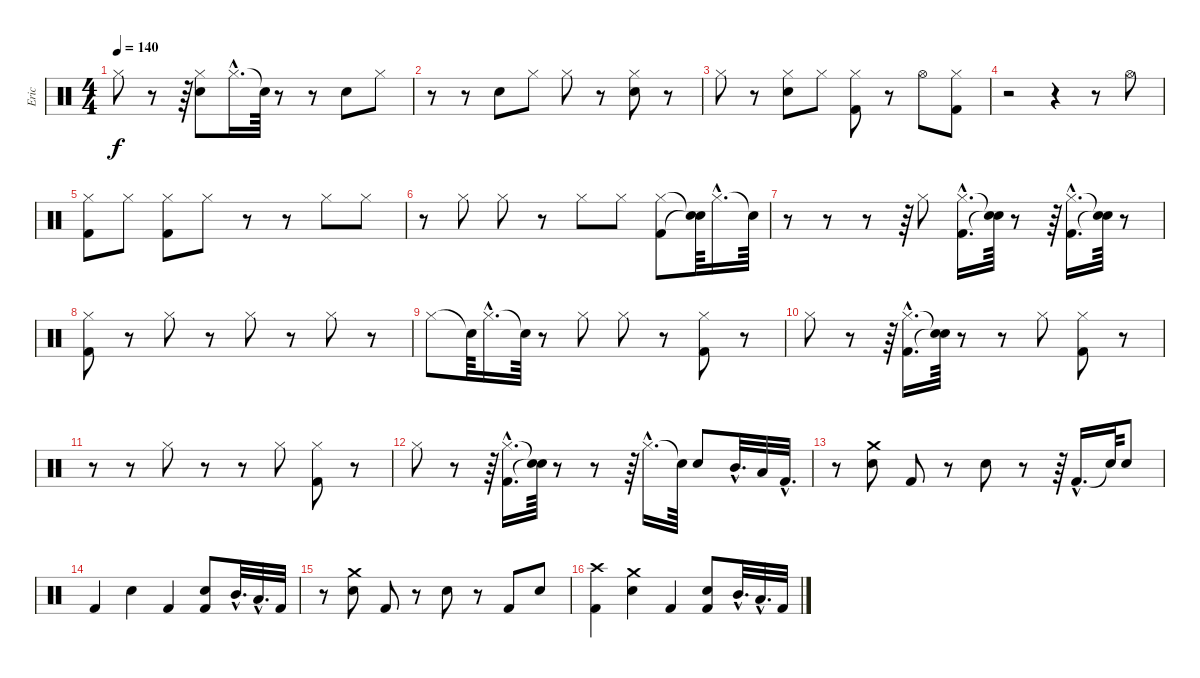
\track ("Eric" "Eric") {instrument percussion}
\staff {score}
\articulation defaults
\ts (4 4)
\tempo 140
\clef neutral
\ks c "Hi-Hat (closed)".8{dy f}
r.8 r.64 ("Hi-Hat (closed)" "Electric Snare (hit)").8 "Hi-Hat (closed)"{hac}.16{d} "Snare (hit)"{t}.64 r.8 r.8 "Electric Snare (hit)".8 "Hi-Hat (closed)".8 |
r.8 r.8 "Electric Snare (hit)".8 "Hi-Hat (closed)".8 "Hi-Hat (closed)".8 r.8 ("Hi-Hat (closed)" "Electric Snare (hit)").8 r.8 |
"Hi-Hat (closed)".8 r.8 ("Hi-Hat (closed)" "Electric Snare (hit)").8 "Hi-Hat (closed)".8 ("Kick (hit) 2" "Hi-Hat (closed)").8 r.8 "Hi-Hat (open)".8 ("Kick (hit) 2" "Hi-Hat (closed)").8 |
r.2 r.4 r.8 "Hi-Hat (open)".8 |
("Kick (hit) 2" "Hi-Hat (closed)").8 "Hi-Hat (closed)".8 ("Kick (hit) 2" "Hi-Hat (closed)").8 "Hi-Hat (closed)".8 r.8 r.8 "Hi-Hat (closed)".8 "Hi-Hat (closed)".8 |
r.8 "Hi-Hat (closed)".8 "Hi-Hat (closed)".8 r.8 "Hi-Hat (closed)".8 "Hi-Hat (closed)".8 ("Kick (hit) 2" "Hi-Hat (closed)").8 ("Snare (hit)"{t} "Snare (hit)"{t}).64 "Hi-Hat (closed)"{hac}.16{d} "Snare (hit)"{t}.64 |
r.8 r.8 r.8 r.64 "Hi-Hat (closed)".8 ("Kick (hit) 2"{hac} "Hi-Hat (closed)"{hac}).16{d} ("Snare (hit)"{t} "Snare (hit)"{t}).64 r.8 r.64 ("Kick (hit) 2"{hac} "Hi-Hat (closed)"{hac}).16{d} ("Snare (hit)"{t} "Snare (hit)"{t}).64 r.8 |
("Kick (hit) 2" "Hi-Hat (closed)").8 r.8 "Hi-Hat (closed)".8 r.8 "Hi-Hat (closed)".8 r.8 "Hi-Hat (closed)".8 r.8 |
"Hi-Hat (closed)".8 "Snare (hit)"{t}.64 "Hi-Hat (closed)"{hac}.16{d} "Snare (hit)"{t}.64 r.8 "Hi-Hat (closed)".8 "Hi-Hat (closed)".8 r.8 ("Kick (hit) 2" "Hi-Hat (closed)").8 r.8 |
"Hi-Hat (closed)".8 r.8 r.64 ("Kick (hit) 2"{hac} "Hi-Hat (closed)"{hac}).16{d} ("Snare (hit)"{t} "Snare (hit)"{t}).64 r.8 r.8 "Hi-Hat (closed)".8 ("Kick (hit) 2" "Hi-Hat (closed)").8 r.8 |
r.8 r.8 "Hi-Hat (closed)".8 r.8 r.8 "Hi-Hat (closed)".8 ("Kick (hit) 2" "Hi-Hat (closed)").8 r.8 |
"Hi-Hat (closed)".8 r.8 r.64 ("Kick (hit) 2"{hac} "Hi-Hat (closed)"{hac}).16{d} ("Snare (hit)"{t} "Snare (hit)"{t}).64 r.8 r.8 r.64 "Hi-Hat (closed)"{hac}.16{d} "Snare (hit)"{t}.64 "Electric Snare (hit)".8 "Mid Tom (hit)"{hac}.32{d} "Low Tom (hit)".32 "Kick (hit) 2"{hac}.32{d} |
r.8 ("Crash medium (hit)" "Electric Snare (hit)").8 "Kick (hit) 2".8 r.8 "Electric Snare (hit)".8 r.8 r.64 "Kick (hit) 2"{hac}.16{d} "Snare (hit)"{t}.64 "Electric Snare (hit)".8 |
"Kick (hit) 2".4 "Electric Snare (hit)".4 "Kick (hit) 2".4 ("Kick (hit) 2" "Electric Snare (hit)").8 "Mid Tom (hit)"{hac}.32{d} "Low Tom (hit)"{hac}.32{d} "Kick (hit) 2".32 |
r.8 ("Crash medium (hit)" "Electric Snare (hit)").8 "Kick (hit) 2".8 r.8 "Electric Snare (hit)".8 r.8 "Kick (hit) 2".8 "Electric Snare (hit)".8 |
("Crash high (hit)" "Kick (hit) 2").4 ("Crash medium (hit)" "Electric Snare (hit)").4 "Kick (hit) 2".4 ("Kick (hit) 2" "Electric Snare (hit)").8 "Mid Tom (hit)"{hac}.32{d} "Low Tom (hit)"{hac}.32{d} "Kick (hit) 2".32
